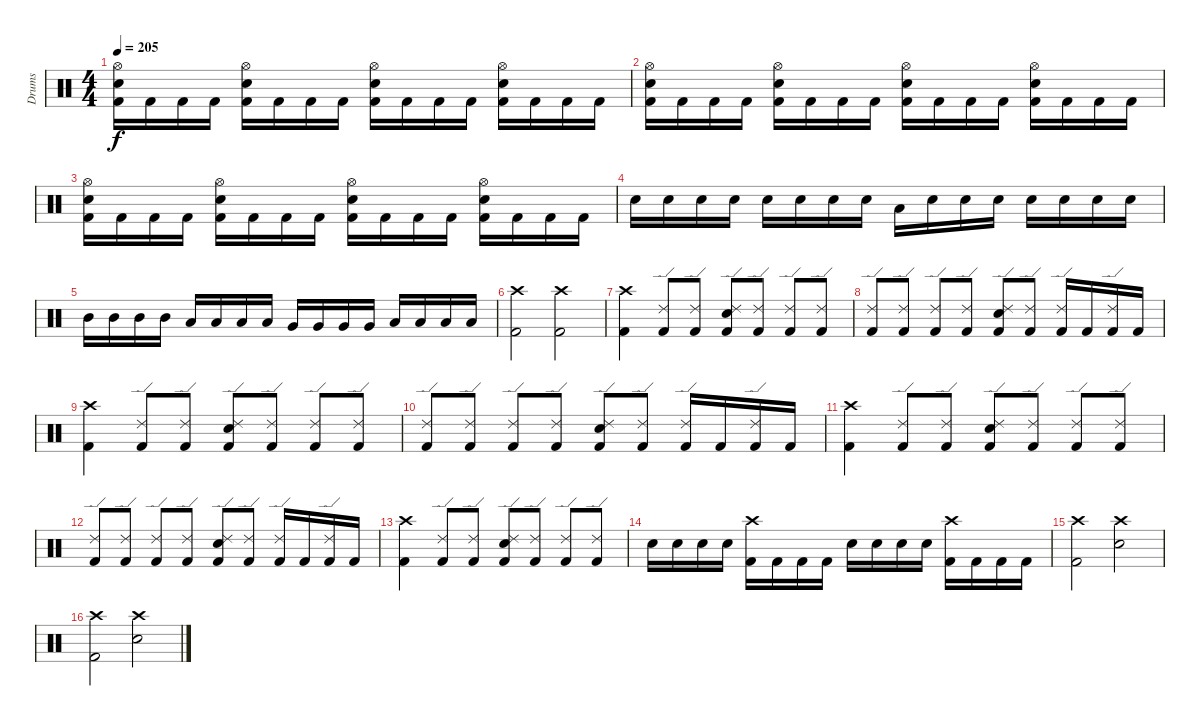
\track ("Drums" "Drums") {instrument percussion}
\staff {score}
\articulation defaults
\ts (4 4)
\tempo 205
\clef neutral
\ks c
("Hi-Hat (open)" "Snare (hit) 2" "Kick (hit) 2").16{dy f} "Kick (hit) 2".16 "Kick (hit) 2".16 "Kick (hit) 2".16 ("Hi-Hat (open)" "Snare (hit) 2" "Kick (hit) 2").16 "Kick (hit) 2".16 "Kick (hit) 2".16 "Kick (hit) 2".16 ("Hi-Hat (open)" "Snare (hit) 2" "Kick (hit) 2").16 "Kick (hit) 2".16 "Kick (hit) 2".16 "Kick (hit) 2".16 ("Hi-Hat (open)" "Snare (hit) 2" "Kick (hit) 2").16 "Kick (hit) 2".16 "Kick (hit) 2".16 "Kick (hit) 2".16 |
("Hi-Hat (open)" "Snare (hit) 2" "Kick (hit) 2").16 "Kick (hit) 2".16 "Kick (hit) 2".16 "Kick (hit) 2".16 ("Hi-Hat (open)" "Snare (hit) 2" "Kick (hit) 2").16 "Kick (hit) 2".16 "Kick (hit) 2".16 "Kick (hit) 2".16 ("Hi-Hat (open)" "Snare (hit) 2" "Kick (hit) 2").16 "Kick (hit) 2".16 "Kick (hit) 2".16 "Kick (hit) 2".16 ("Hi-Hat (open)" "Snare (hit) 2" "Kick (hit) 2").16 "Kick (hit) 2".16 "Kick (hit) 2".16 "Kick (hit) 2".16 |
("Hi-Hat (open)" "Snare (hit) 2" "Kick (hit) 2").16 "Kick (hit) 2".16 "Kick (hit) 2".16 "Kick (hit) 2".16 ("Hi-Hat (open)" "Snare (hit) 2" "Kick (hit) 2").16 "Kick (hit) 2".16 "Kick (hit) 2".16 "Kick (hit) 2".16 ("Hi-Hat (open)" "Snare (hit) 2" "Kick (hit) 2").16 "Kick (hit) 2".16 "Kick (hit) 2".16 "Kick (hit) 2".16 ("Hi-Hat (open)" "Snare (hit) 2" "Kick (hit) 2").16 "Kick (hit) 2".16 "Kick (hit) 2".16 "Kick (hit) 2".16 |
"Snare (hit) 2".16 "Snare (hit) 2".16 "Snare (hit) 2".16 "Snare (hit) 2".16 "Snare (hit) 2".16 "Snare (hit) 2".16 "Snare (hit) 2".16 "Snare (hit) 2".16 "Low Tom (hit)".16 "Snare (hit) 2".16 "Snare (hit) 2".16 "Snare (hit) 2".16 "Snare (hit) 2".16 "Snare (hit) 2".16 "Snare (hit) 2".16 "Snare (hit) 2".16 |
"Mid Tom (hit)".16 "Mid Tom (hit)".16 "Mid Tom (hit)".16 "Mid Tom (hit)".16 "Low Tom (hit)".16 "Low Tom (hit)".16 "Low Tom (hit)".16 "Low Tom (hit)".16 "Very Low Tom (hit)".16 "Very Low Tom (hit)".16 "Very Low Tom (hit)".16 "Very Low Tom (hit)".16 "Low Floor Tom (hit)".16 "Low Floor Tom (hit)".16 "Low Floor Tom (hit)".16 "Low Floor Tom (hit)".16 |
("Crash high (hit)" "Kick (hit) 2").2 ("Crash high (hit)" "Kick (hit) 2").2 |
("Crash high (hit)" "Kick (hit) 2").4 ("Ride (edge) 2" "Kick (hit) 2").8 ("Ride (edge) 2" "Kick (hit) 2").8 ("Ride (edge) 2" "Snare (hit) 2" "Kick (hit) 2").8 ("Ride (edge) 2" "Kick (hit) 2").8 ("Ride (edge) 2" "Kick (hit) 2").8 ("Ride (edge) 2" "Kick (hit) 2").8 |
("Ride (edge) 2" "Kick (hit) 2").8 ("Ride (edge) 2" "Kick (hit) 2").8 ("Ride (edge) 2" "Kick (hit) 2").8 ("Ride (edge) 2" "Kick (hit) 2").8 ("Ride (edge) 2" "Snare (hit) 2" "Kick (hit) 2").8 ("Ride (edge) 2" "Kick (hit) 2").8 ("Ride (edge) 2" "Kick (hit) 2").16 "Kick (hit) 2".16 ("Ride (edge) 2" "Kick (hit) 2").16 "Kick (hit) 2".16 |
("Crash high (hit)" "Kick (hit) 2").4 ("Ride (edge) 2" "Kick (hit) 2").8 ("Ride (edge) 2" "Kick (hit) 2").8 ("Ride (edge) 2" "Snare (hit) 2" "Kick (hit) 2").8 ("Ride (edge) 2" "Kick (hit) 2").8 ("Ride (edge) 2" "Kick (hit) 2").8 ("Ride (edge) 2" "Kick (hit) 2").8 |
("Ride (edge) 2" "Kick (hit) 2").8 ("Ride (edge) 2" "Kick (hit) 2").8 ("Ride (edge) 2" "Kick (hit) 2").8 ("Ride (edge) 2" "Kick (hit) 2").8 ("Ride (edge) 2" "Snare (hit) 2" "Kick (hit) 2").8 ("Ride (edge) 2" "Kick (hit) 2").8 ("Ride (edge) 2" "Kick (hit) 2").16 "Kick (hit) 2".16 ("Ride (edge) 2" "Kick (hit) 2").16 "Kick (hit) 2".16 |
("Crash high (hit)" "Kick (hit) 2").4 ("Ride (edge) 2" "Kick (hit) 2").8 ("Ride (edge) 2" "Kick (hit) 2").8 ("Ride (edge) 2" "Snare (hit) 2" "Kick (hit) 2").8 ("Ride (edge) 2" "Kick (hit) 2").8 ("Ride (edge) 2" "Kick (hit) 2").8 ("Ride (edge) 2" "Kick (hit) 2").8 |
("Ride (edge) 2" "Kick (hit) 2").8 ("Ride (edge) 2" "Kick (hit) 2").8 ("Ride (edge) 2" "Kick (hit) 2").8 ("Ride (edge) 2" "Kick (hit) 2").8 ("Ride (edge) 2" "Snare (hit) 2" "Kick (hit) 2").8 ("Ride (edge) 2" "Kick (hit) 2").8 ("Ride (edge) 2" "Kick (hit) 2").16 "Kick (hit) 2".16 ("Ride (edge) 2" "Kick (hit) 2").16 "Kick (hit) 2".16 |
("Crash high (hit)" "Kick (hit) 2").4 ("Ride (edge) 2" "Kick (hit) 2").8 ("Ride (edge) 2" "Kick (hit) 2").8 ("Ride (edge) 2" "Snare (hit) 2" "Kick (hit) 2").8 ("Ride (edge) 2" "Kick (hit) 2").8 ("Ride (edge) 2" "Kick (hit) 2").8 ("Ride (edge) 2" "Kick (hit) 2").8 |
"Snare (hit) 2".16 "Snare (hit) 2".16 "Snare (hit) 2".16 "Snare (hit) 2".16 ("Crash high (hit)" "Kick (hit) 2").16 "Kick (hit) 2".16 "Kick (hit) 2".16 "Kick (hit) 2".16 "Snare (hit) 2".16 "Snare (hit) 2".16 "Snare (hit) 2".16 "Snare (hit) 2".16 ("Crash high (hit)" "Kick (hit) 2").16 "Kick (hit) 2".16 "Kick (hit) 2".16 "Kick (hit) 2".16 |
("Crash high (hit)" "Kick (hit) 2").2 ("Crash high (hit)" "Snare (hit) 2").2 |
("Crash high (hit)" "Kick (hit) 2").2 ("Crash high (hit)" "Snare (hit) 2").2
